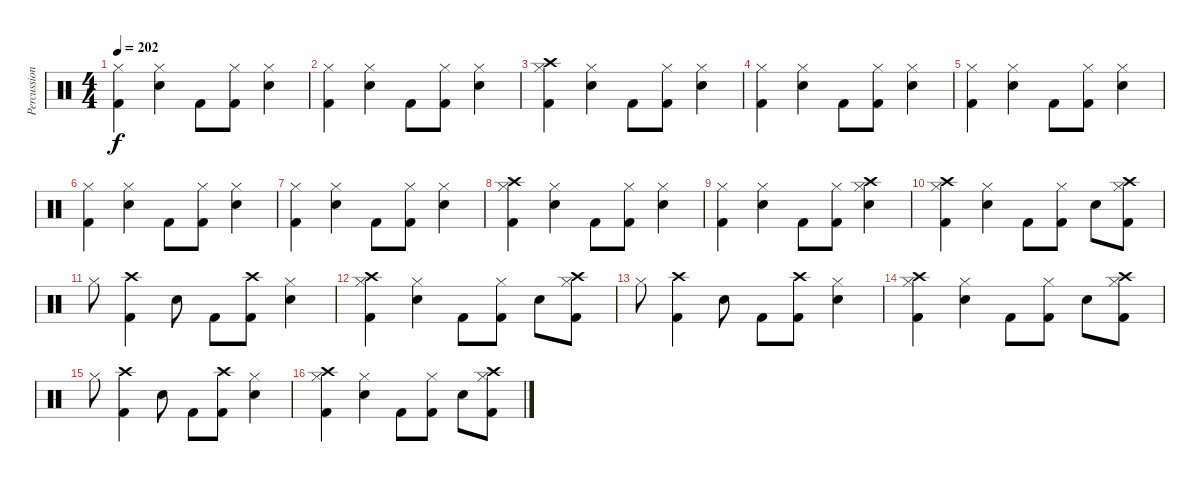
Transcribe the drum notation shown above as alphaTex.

\track ("Percussioni" "Percussion") {instrument percussion}
\staff {score}
\articulation defaults
\ts (4 4)
\tempo 202
\clef neutral
\ks c
("Hi-Hat (closed)" "Kick (hit) 2").4{dy f} ("Hi-Hat (closed)" "Snare (hit) 2").4 "Kick (hit) 2".8 ("Hi-Hat (closed)" "Kick (hit) 2").8 ("Hi-Hat (closed)" "Snare (hit) 2").4 |
("Hi-Hat (closed)" "Kick (hit) 2").4 ("Hi-Hat (closed)" "Snare (hit) 2").4 "Kick (hit) 2".8 ("Hi-Hat (closed)" "Kick (hit) 2").8 ("Hi-Hat (closed)" "Snare (hit) 2").4 |
("Hi-Hat (closed)" "Crash high (hit)" "Kick (hit) 2").4 ("Hi-Hat (closed)" "Snare (hit) 2").4 "Kick (hit) 2".8 ("Hi-Hat (closed)" "Kick (hit) 2").8 ("Hi-Hat (closed)" "Snare (hit) 2").4 |
("Hi-Hat (closed)" "Kick (hit) 2").4 ("Hi-Hat (closed)" "Snare (hit) 2").4 "Kick (hit) 2".8 ("Hi-Hat (closed)" "Kick (hit) 2").8 ("Hi-Hat (closed)" "Snare (hit) 2").4 |
("Hi-Hat (closed)" "Kick (hit) 2").4 ("Hi-Hat (closed)" "Snare (hit) 2").4 "Kick (hit) 2".8 ("Hi-Hat (closed)" "Kick (hit) 2").8 ("Hi-Hat (closed)" "Snare (hit) 2").4 |
("Hi-Hat (closed)" "Kick (hit) 2").4 ("Hi-Hat (closed)" "Snare (hit) 2").4 "Kick (hit) 2".8 ("Hi-Hat (closed)" "Kick (hit) 2").8 ("Hi-Hat (closed)" "Snare (hit) 2").4 |
("Hi-Hat (closed)" "Kick (hit) 2").4 ("Hi-Hat (closed)" "Snare (hit) 2").4 "Kick (hit) 2".8 ("Hi-Hat (closed)" "Kick (hit) 2").8 ("Hi-Hat (closed)" "Snare (hit) 2").4 |
("Hi-Hat (closed)" "Crash high (hit)" "Kick (hit) 2").4 ("Hi-Hat (closed)" "Snare (hit) 2").4 "Kick (hit) 2".8 ("Hi-Hat (closed)" "Kick (hit) 2").8 ("Hi-Hat (closed)" "Snare (hit) 2").4 |
("Hi-Hat (closed)" "Kick (hit) 2").4 ("Hi-Hat (closed)" "Snare (hit) 2").4 "Kick (hit) 2".8 ("Hi-Hat (closed)" "Kick (hit) 2").8 ("Hi-Hat (closed)" "Crash high (hit)" "Snare (hit) 2").4 |
("Hi-Hat (closed)" "Crash high (hit)" "Kick (hit) 2").4 ("Hi-Hat (closed)" "Snare (hit) 2").4 "Kick (hit) 2".8 ("Hi-Hat (closed)" "Kick (hit) 2").8 "Snare (hit) 2".8 ("Hi-Hat (closed)" "Crash high (hit)" "Kick (hit) 2").8 |
"Hi-Hat (closed)".8 ("Crash high (hit)" "Kick (hit) 2").4 "Snare (hit) 2".8 "Kick (hit) 2".8 ("Crash high (hit)" "Kick (hit) 2").8 ("Hi-Hat (closed)" "Snare (hit) 2").4 |
("Hi-Hat (closed)" "Crash high (hit)" "Kick (hit) 2").4 ("Hi-Hat (closed)" "Snare (hit) 2").4 "Kick (hit) 2".8 ("Hi-Hat (closed)" "Kick (hit) 2").8 "Snare (hit) 2".8 ("Hi-Hat (closed)" "Crash high (hit)" "Kick (hit) 2").8 |
"Hi-Hat (closed)".8 ("Crash high (hit)" "Kick (hit) 2").4 "Snare (hit) 2".8 "Kick (hit) 2".8 ("Crash high (hit)" "Kick (hit) 2").8 ("Hi-Hat (closed)" "Snare (hit) 2").4 |
("Hi-Hat (closed)" "Crash high (hit)" "Kick (hit) 2").4 ("Hi-Hat (closed)" "Snare (hit) 2").4 "Kick (hit) 2".8 ("Hi-Hat (closed)" "Kick (hit) 2").8 "Snare (hit) 2".8 ("Hi-Hat (closed)" "Crash high (hit)" "Kick (hit) 2").8 |
"Hi-Hat (closed)".8 ("Crash high (hit)" "Kick (hit) 2").4 "Snare (hit) 2".8 "Kick (hit) 2".8 ("Crash high (hit)" "Kick (hit) 2").8 ("Hi-Hat (closed)" "Snare (hit) 2").4 |
("Hi-Hat (closed)" "Crash high (hit)" "Kick (hit) 2").4 ("Hi-Hat (closed)" "Snare (hit) 2").4 "Kick (hit) 2".8 ("Hi-Hat (closed)" "Kick (hit) 2").8 "Snare (hit) 2".8 ("Hi-Hat (closed)" "Crash high (hit)" "Kick (hit) 2").8
